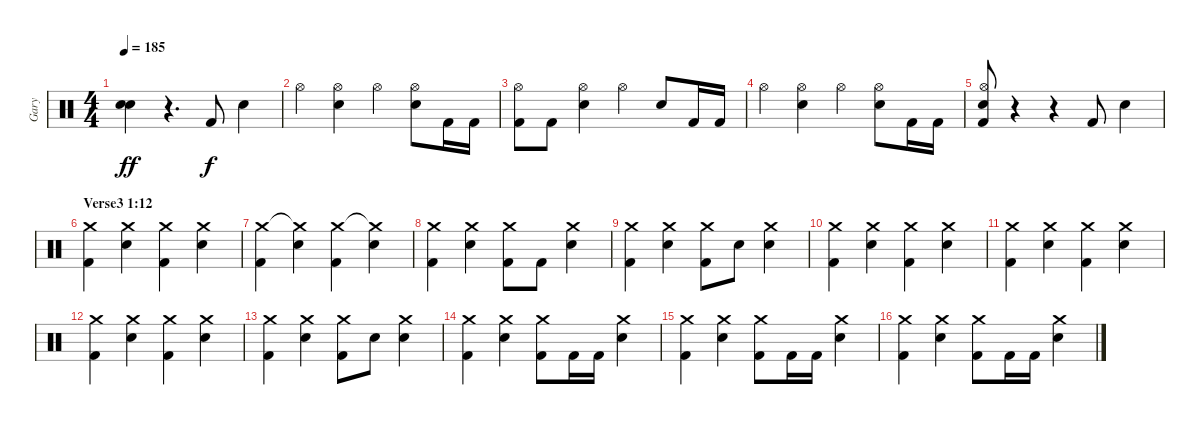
\track ("Gary" "Gary") {instrument percussion}
\staff {score}
\articulation defaults
\ts (4 4)
\tempo 185
\clef neutral
\ks c
("Electric Snare (hit)" "Electric Snare (hit)").4{dy ff} r.4{d} "Kick (hit) 2".8{dy f} "Electric Snare (hit)".4 |
\section ("" "")
"Hi-Hat (open)".4 ("Snare (hit) 2" "Hi-Hat (open)").4 "Hi-Hat (open)".4 ("Snare (hit) 2" "Hi-Hat (open)").8 "Kick (hit) 2".16 "Kick (hit) 2".16 |
("Kick (hit) 2" "Hi-Hat (open)").8 "Kick (hit) 2".8 ("Snare (hit) 2" "Hi-Hat (open)").4 "Hi-Hat (open)".4 "Snare (hit) 2".8 "Kick (hit) 2".16 "Kick (hit) 2".16 |
"Hi-Hat (open)".4 ("Snare (hit) 2" "Hi-Hat (open)").4 "Hi-Hat (open)".4 ("Snare (hit) 2" "Hi-Hat (open)").8 "Kick (hit) 2".16 "Kick (hit) 2".16 |
("Kick (hit) 2" "Snare (hit) 2" "Hi-Hat (open)").8 r.4 r.4 "Kick (hit) 2".8 "Electric Snare (hit)".4 |
\section ("" "Verse3 1:12")
("Kick (hit) 2" "Crash medium (hit)").4 ("Electric Snare (hit)" "Crash medium (hit)").4 ("Kick (hit) 2" "Crash medium (hit)").4 ("Electric Snare (hit)" "Crash medium (hit)").4 |
("Kick (hit) 2" "Crash medium (hit)").4 ("Electric Snare (hit)" "Crash medium (hit)"{t}).4 ("Kick (hit) 2" "Crash medium (hit)").4 ("Electric Snare (hit)" "Crash medium (hit)"{t}).4 |
("Kick (hit) 2" "Crash medium (hit)").4 ("Electric Snare (hit)" "Crash medium (hit)").4 ("Kick (hit) 2" "Crash medium (hit)").8 "Kick (hit) 2".8 ("Electric Snare (hit)" "Crash medium (hit)").4 |
("Kick (hit) 2" "Crash medium (hit)").4 ("Electric Snare (hit)" "Crash medium (hit)").4 ("Kick (hit) 2" "Crash medium (hit)").8 "Electric Snare (hit)".8 ("Electric Snare (hit)" "Crash medium (hit)").4 |
("Kick (hit) 2" "Crash medium (hit)").4 ("Electric Snare (hit)" "Crash medium (hit)").4 ("Kick (hit) 2" "Crash medium (hit)").4 ("Electric Snare (hit)" "Crash medium (hit)").4 |
("Kick (hit) 2" "Crash medium (hit)").4 ("Electric Snare (hit)" "Crash medium (hit)").4 ("Kick (hit) 2" "Crash medium (hit)").4 ("Electric Snare (hit)" "Crash medium (hit)").4 |
("Kick (hit) 2" "Crash medium (hit)").4 ("Electric Snare (hit)" "Crash medium (hit)").4 ("Kick (hit) 2" "Crash medium (hit)").4 ("Electric Snare (hit)" "Crash medium (hit)").4 |
("Kick (hit) 2" "Crash medium (hit)").4 ("Electric Snare (hit)" "Crash medium (hit)").4 ("Kick (hit) 2" "Crash medium (hit)").8 "Electric Snare (hit)".8 ("Electric Snare (hit)" "Crash medium (hit)").4 |
("Kick (hit) 2" "Crash medium (hit)").4 ("Electric Snare (hit)" "Crash medium (hit)").4 ("Kick (hit) 2" "Crash medium (hit)").8 "Kick (hit) 2".16 "Kick (hit) 2".16 ("Electric Snare (hit)" "Crash medium (hit)").4 |
("Kick (hit) 2" "Crash medium (hit)").4 ("Electric Snare (hit)" "Crash medium (hit)").4 ("Kick (hit) 2" "Crash medium (hit)").8 "Kick (hit) 2".16 "Kick (hit) 2".16 ("Electric Snare (hit)" "Crash medium (hit)").4 |
("Kick (hit) 2" "Crash medium (hit)").4 ("Electric Snare (hit)" "Crash medium (hit)").4 ("Kick (hit) 2" "Crash medium (hit)").8 "Kick (hit) 2".16 "Kick (hit) 2".16 ("Electric Snare (hit)" "Crash medium (hit)").4
